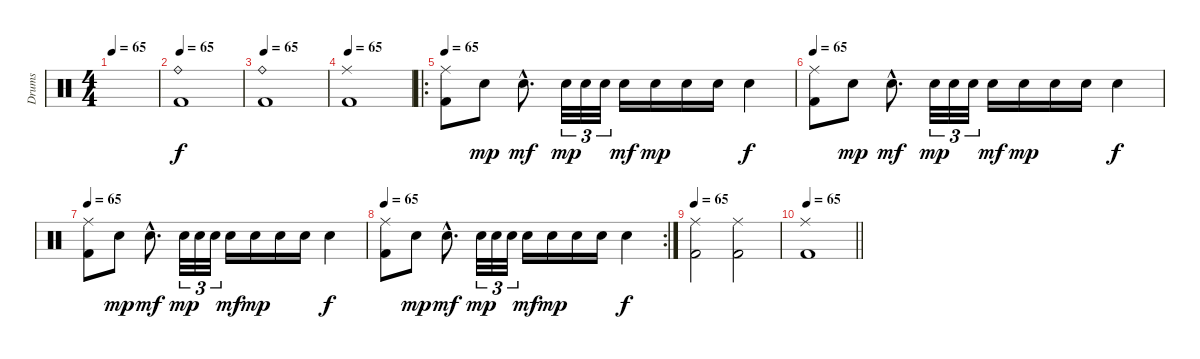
\track ("Drums" "Drums") {instrument percussion}
\staff {score}
\articulation defaults
\ts (4 4)
\tempo 65
\clef neutral
\ks c
|
\tempo 65
("Ride (bell)" "Kick (hit) 2").1 |
\tempo 65
("Ride (bell)" "Kick (hit) 2").1 |
\tempo 65
("Ride (middle)" "Kick (hit) 2").1 |
\ro
\tempo 65
("Ride (middle)" "Kick (hit) 2").8 "Electric Snare (hit)".8{dy mp} "Electric Snare (hit)"{hac}.8{d dy mf} "Electric Snare (hit)".32{tu (3 2) dy mp} "Electric Snare (hit)".32{tu (3 2)} "Electric Snare (hit)".32{tu (3 2)} "Electric Snare (hit)".16{dy mf} "Electric Snare (hit)".16{dy mp} "Electric Snare (hit)".16 "Electric Snare (hit)".16 "Electric Snare (hit)".4{dy f} |
\tempo 65
("Ride (middle)" "Kick (hit) 2").8 "Electric Snare (hit)".8{dy mp} "Electric Snare (hit)"{hac}.8{d dy mf} "Electric Snare (hit)".32{tu (3 2) dy mp} "Electric Snare (hit)".32{tu (3 2)} "Electric Snare (hit)".32{tu (3 2)} "Electric Snare (hit)".16{dy mf} "Electric Snare (hit)".16{dy mp} "Electric Snare (hit)".16 "Electric Snare (hit)".16 "Electric Snare (hit)".4{dy f} |
\tempo 65
("Ride (middle)" "Kick (hit) 2").8 "Electric Snare (hit)".8{dy mp} "Electric Snare (hit)"{hac}.8{d dy mf} "Electric Snare (hit)".32{tu (3 2) dy mp} "Electric Snare (hit)".32{tu (3 2)} "Electric Snare (hit)".32{tu (3 2)} "Electric Snare (hit)".16{dy mf} "Electric Snare (hit)".16{dy mp} "Electric Snare (hit)".16 "Electric Snare (hit)".16 "Electric Snare (hit)".4{dy f} |
\rc 2
\tempo 65
("Ride (middle)" "Kick (hit) 2").8 "Electric Snare (hit)".8{dy mp} "Electric Snare (hit)"{hac}.8{d dy mf} "Electric Snare (hit)".32{tu (3 2) dy mp} "Electric Snare (hit)".32{tu (3 2)} "Electric Snare (hit)".32{tu (3 2)} "Electric Snare (hit)".16{dy mf} "Electric Snare (hit)".16{dy mp} "Electric Snare (hit)".16 "Electric Snare (hit)".16 "Electric Snare (hit)".4{dy f} |
\tempo 65
("Ride (middle)" "Kick (hit) 2").2 ("Ride (middle)" "Kick (hit) 2").2 |
\tempo 65
\barLineRight lightlight
("Ride (middle)" "Kick (hit) 2").1
